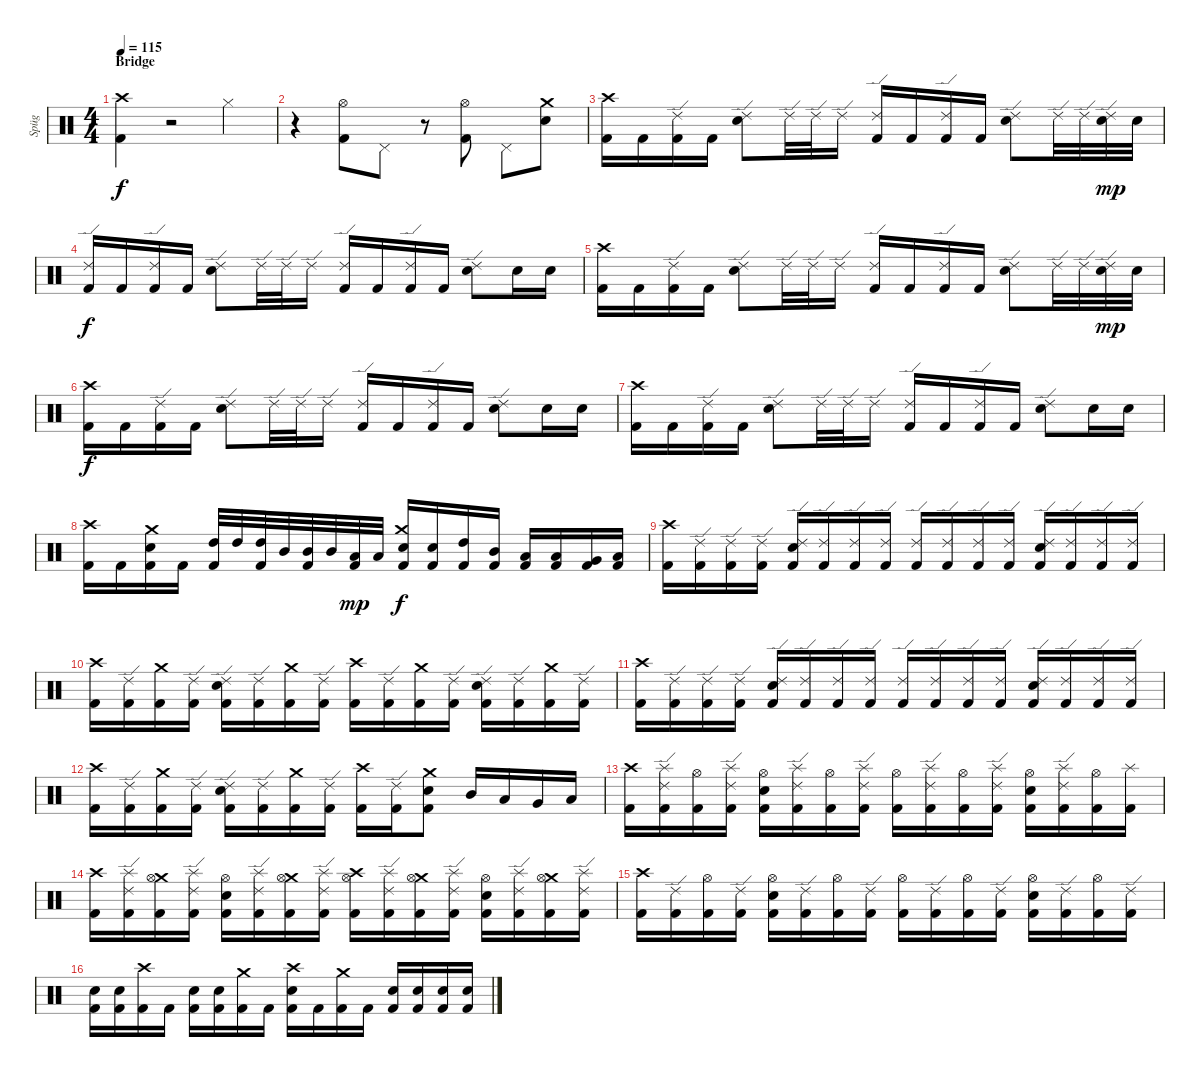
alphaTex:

\track ("Spüg" "Spüg") {instrument percussion}
\staff {score}
\articulation defaults
\ts (4 4)
\section ("" "Bridge")
\tempo 115
\clef neutral
\ks c
("Crash high (hit)" "Kick (hit) 2").4{dy f} r.2 "Hi-Hat (closed)".4 |
r.4 ("Hi-Hat (open)" "Kick (hit) 2").8 "Pedal Hi-Hat (hit)".8 r.8 ("Hi-Hat (open)" "Kick (hit) 2").8 "Pedal Hi-Hat (hit)".8 ("Crash medium (hit)" "Electric Snare (hit)").8 |
("Crash high (hit)" "Kick (hit) 2").16 "Kick (hit) 2".16 ("Ride (edge) 2" "Kick (hit) 2").16 "Kick (hit) 2".16 ("Ride (edge) 2" "Electric Snare (hit)").8 "Ride (edge) 2".32 "Ride (edge) 2".32 "Ride (edge) 2".16 ("Ride (edge) 2" "Kick (hit) 2").16 "Kick (hit) 2".16 ("Ride (edge) 2" "Kick (hit) 2").16 "Kick (hit) 2".16 ("Ride (edge) 2" "Electric Snare (hit)").8 "Ride (edge) 2".32 "Ride (edge) 2".32 ("Ride (edge) 2" "Electric Snare (hit)").32{dy mp} "Electric Snare (hit)".32 |
("Ride (edge) 2" "Kick (hit) 2").16{dy f} "Kick (hit) 2".16 ("Ride (edge) 2" "Kick (hit) 2").16 "Kick (hit) 2".16 ("Ride (edge) 2" "Electric Snare (hit)").8 "Ride (edge) 2".32 "Ride (edge) 2".32 "Ride (edge) 2".16 ("Ride (edge) 2" "Kick (hit) 2").16 "Kick (hit) 2".16 ("Ride (edge) 2" "Kick (hit) 2").16 "Kick (hit) 2".16 ("Ride (edge) 2" "Electric Snare (hit)").8 "Electric Snare (hit)".16 "Electric Snare (hit)".16 |
("Crash high (hit)" "Kick (hit) 2").16 "Kick (hit) 2".16 ("Ride (edge) 2" "Kick (hit) 2").16 "Kick (hit) 2".16 ("Ride (edge) 2" "Electric Snare (hit)").8 "Ride (edge) 2".32 "Ride (edge) 2".32 "Ride (edge) 2".16 ("Ride (edge) 2" "Kick (hit) 2").16 "Kick (hit) 2".16 ("Ride (edge) 2" "Kick (hit) 2").16 "Kick (hit) 2".16 ("Ride (edge) 2" "Electric Snare (hit)").8 "Ride (edge) 2".32 "Ride (edge) 2".32 ("Ride (edge) 2" "Electric Snare (hit)").32{dy mp} "Electric Snare (hit)".32 |
("Crash high (hit)" "Kick (hit) 2").16{dy f} "Kick (hit) 2".16 ("Ride (edge) 2" "Kick (hit) 2").16 "Kick (hit) 2".16 ("Ride (edge) 2" "Electric Snare (hit)").8 "Ride (edge) 2".32 "Ride (edge) 2".32 "Ride (edge) 2".16 ("Ride (edge) 2" "Kick (hit) 2").16 "Kick (hit) 2".16 ("Ride (edge) 2" "Kick (hit) 2").16 "Kick (hit) 2".16 ("Ride (edge) 2" "Electric Snare (hit)").8 "Electric Snare (hit)".16 "Electric Snare (hit)".16 |
("Crash high (hit)" "Kick (hit) 2").16 "Kick (hit) 2".16 ("Ride (edge) 2" "Kick (hit) 2").16 "Kick (hit) 2".16 ("Ride (edge) 2" "Electric Snare (hit)").8 "Ride (edge) 2".32 "Ride (edge) 2".32 "Ride (edge) 2".16 ("Ride (edge) 2" "Kick (hit) 2").16 "Kick (hit) 2".16 ("Ride (edge) 2" "Kick (hit) 2").16 "Kick (hit) 2".16 ("Ride (edge) 2" "Electric Snare (hit)").8 "Electric Snare (hit)".16 "Electric Snare (hit)".16 |
("Crash high (hit)" "Kick (hit) 2").16 "Kick (hit) 2".16 ("Crash medium (hit)" "Electric Snare (hit)" "Kick (hit) 2").16 "Kick (hit) 2".16 ("High Tom (hit)" "Kick (hit) 2").32 "High Tom (hit)".32 ("High Tom (hit)" "Kick (hit) 2").32 "Mid Tom (hit)".32 ("Mid Tom (hit)" "Kick (hit) 2").32 "Mid Tom (hit)".32 ("Low Tom (hit)" "Kick (hit) 2").32{dy mp} "Low Tom (hit)".32 ("Crash medium (hit)" "Electric Snare (hit)" "Kick (hit) 2").16{dy f} ("Electric Snare (hit)" "Kick (hit) 2").16 ("High Tom (hit)" "Kick (hit) 2").16 ("Mid Tom (hit)" "Kick (hit) 2").16 ("Low Tom (hit)" "Kick (hit) 2").16 ("Low Tom (hit)" "Kick (hit) 2").16 ("Very Low Tom (hit)" "Kick (hit) 2").16 ("Low Floor Tom (hit)" "Kick (hit) 2").16 |
("Crash high (hit)" "Kick (hit) 2").16 ("Ride (edge) 2" "Kick (hit) 2").16 ("Ride (edge) 2" "Kick (hit) 2").16 ("Ride (edge) 2" "Kick (hit) 2").16 ("Ride (edge) 2" "Electric Snare (hit)" "Kick (hit) 2").16 ("Ride (edge) 2" "Kick (hit) 2").16 ("Ride (edge) 2" "Kick (hit) 2").16 ("Ride (edge) 2" "Kick (hit) 2").16 ("Ride (edge) 2" "Kick (hit) 2").16 ("Ride (edge) 2" "Kick (hit) 2").16 ("Ride (edge) 2" "Kick (hit) 2").16 ("Ride (edge) 2" "Kick (hit) 2").16 ("Ride (edge) 2" "Electric Snare (hit)" "Kick (hit) 2").16 ("Ride (edge) 2" "Kick (hit) 2").16 ("Ride (edge) 2" "Kick (hit) 2").16 ("Ride (edge) 2" "Kick (hit) 2").16 |
("Crash high (hit)" "Kick (hit) 2").16 ("Ride (edge) 2" "Kick (hit) 2").16 ("Crash medium (hit)" "Kick (hit) 2").16 ("Ride (edge) 2" "Kick (hit) 2").16 ("Ride (edge) 2" "Electric Snare (hit)" "Kick (hit) 2").16 ("Ride (edge) 2" "Kick (hit) 2").16 ("Crash medium (hit)" "Kick (hit) 2").16 ("Ride (edge) 2" "Kick (hit) 2").16 ("Crash high (hit)" "Kick (hit) 2").16 ("Ride (edge) 2" "Kick (hit) 2").16 ("Crash medium (hit)" "Kick (hit) 2").16 ("Ride (edge) 2" "Kick (hit) 2").16 ("Ride (edge) 2" "Electric Snare (hit)" "Kick (hit) 2").16 ("Ride (edge) 2" "Kick (hit) 2").16 ("Crash medium (hit)" "Kick (hit) 2").16 ("Ride (edge) 2" "Kick (hit) 2").16 |
("Crash high (hit)" "Kick (hit) 2").16 ("Ride (edge) 2" "Kick (hit) 2").16 ("Ride (edge) 2" "Kick (hit) 2").16 ("Ride (edge) 2" "Kick (hit) 2").16 ("Ride (edge) 2" "Electric Snare (hit)" "Kick (hit) 2").16 ("Ride (edge) 2" "Kick (hit) 2").16 ("Ride (edge) 2" "Kick (hit) 2").16 ("Ride (edge) 2" "Kick (hit) 2").16 ("Ride (edge) 2" "Kick (hit) 2").16 ("Ride (edge) 2" "Kick (hit) 2").16 ("Ride (edge) 2" "Kick (hit) 2").16 ("Ride (edge) 2" "Kick (hit) 2").16 ("Ride (edge) 2" "Electric Snare (hit)" "Kick (hit) 2").16 ("Ride (edge) 2" "Kick (hit) 2").16 ("Ride (edge) 2" "Kick (hit) 2").16 ("Ride (edge) 2" "Kick (hit) 2").16 |
("Crash high (hit)" "Kick (hit) 2").16 ("Ride (edge) 2" "Kick (hit) 2").16 ("Crash medium (hit)" "Kick (hit) 2").16 ("Ride (edge) 2" "Kick (hit) 2").16 ("Ride (edge) 2" "Electric Snare (hit)" "Kick (hit) 2").16 ("Ride (edge) 2" "Kick (hit) 2").16 ("Crash medium (hit)" "Kick (hit) 2").16 ("Ride (edge) 2" "Kick (hit) 2").16 ("Crash high (hit)" "Kick (hit) 2").16 ("Ride (edge) 2" "Kick (hit) 2").16 ("Crash medium (hit)" "Electric Snare (hit)" "Kick (hit) 2").8 "Mid Tom (hit)".16 "Low Tom (hit)".16 "Very Low Tom (hit)".16 "Low Floor Tom (hit)".16 |
("Crash high (hit)" "Kick (hit) 2").16 ("Splash (hit)" "Ride (edge) 2" "Kick (hit) 2").16 ("Hi-Hat (open)" "Kick (hit) 2").16 ("Splash (hit)" "Ride (edge) 2" "Kick (hit) 2").16 ("Hi-Hat (open)" "Electric Snare (hit)" "Kick (hit) 2").16 ("Splash (hit)" "Ride (edge) 2" "Kick (hit) 2").16 ("Hi-Hat (open)" "Kick (hit) 2").16 ("Splash (hit)" "Ride (edge) 2" "Kick (hit) 2").16 ("Hi-Hat (open)" "Kick (hit) 2").16 ("Splash (hit)" "Ride (edge) 2" "Kick (hit) 2").16 ("Hi-Hat (open)" "Kick (hit) 2").16 ("Splash (hit)" "Ride (edge) 2" "Kick (hit) 2").16 ("Hi-Hat (open)" "Electric Snare (hit)" "Kick (hit) 2").16 ("Splash (hit)" "Ride (edge) 2" "Kick (hit) 2").16 ("Hi-Hat (open)" "Kick (hit) 2").16 ("Splash (hit)" "Kick (hit) 2").16 |
("Crash high (hit)" "Kick (hit) 2").16 ("Splash (hit)" "Ride (edge) 2" "Kick (hit) 2").16 ("Crash medium (hit)" "Hi-Hat (open)" "Kick (hit) 2").16 ("Splash (hit)" "Ride (edge) 2" "Kick (hit) 2").16 ("Hi-Hat (open)" "Electric Snare (hit)" "Kick (hit) 2").16 ("Splash (hit)" "Ride (edge) 2" "Kick (hit) 2").16 ("Crash medium (hit)" "Hi-Hat (open)" "Kick (hit) 2").16 ("Splash (hit)" "Ride (edge) 2" "Kick (hit) 2").16 ("Crash high (hit)" "Hi-Hat (open)" "Kick (hit) 2").16 ("Splash (hit)" "Ride (edge) 2" "Kick (hit) 2").16 ("Crash medium (hit)" "Hi-Hat (open)" "Kick (hit) 2").16 ("Splash (hit)" "Ride (edge) 2" "Kick (hit) 2").16 ("Hi-Hat (open)" "Electric Snare (hit)" "Kick (hit) 2").16 ("Splash (hit)" "Ride (edge) 2" "Kick (hit) 2").16 ("Crash medium (hit)" "Hi-Hat (open)" "Kick (hit) 2").16 ("Splash (hit)" "Ride (edge) 2" "Kick (hit) 2").16 |
("Crash high (hit)" "Kick (hit) 2").16 ("Ride (edge) 2" "Kick (hit) 2").16 ("Hi-Hat (open)" "Kick (hit) 2").16 ("Ride (edge) 2" "Kick (hit) 2").16 ("Hi-Hat (open)" "Electric Snare (hit)" "Kick (hit) 2").16 ("Ride (edge) 2" "Kick (hit) 2").16 ("Hi-Hat (open)" "Kick (hit) 2").16 ("Ride (edge) 2" "Kick (hit) 2").16 ("Hi-Hat (open)" "Kick (hit) 2").16 ("Ride (edge) 2" "Kick (hit) 2").16 ("Hi-Hat (open)" "Kick (hit) 2").16 ("Ride (edge) 2" "Kick (hit) 2").16 ("Hi-Hat (open)" "Electric Snare (hit)" "Kick (hit) 2").16 ("Ride (edge) 2" "Kick (hit) 2").16 ("Hi-Hat (open)" "Kick (hit) 2").16 ("Ride (edge) 2" "Kick (hit) 2").16 |
("Electric Snare (hit)" "Kick (hit) 2").16 ("Electric Snare (hit)" "Kick (hit) 2").16 ("Crash high (hit)" "Kick (hit) 2").16 "Kick (hit) 2".16 ("Electric Snare (hit)" "Kick (hit) 2").16 ("Electric Snare (hit)" "Kick (hit) 2").16 ("Crash medium (hit)" "Kick (hit) 2").16 "Kick (hit) 2".16 ("Crash high (hit)" "Electric Snare (hit)" "Kick (hit) 2").16 "Kick (hit) 2".16 ("Crash medium (hit)" "Kick (hit) 2").16 "Kick (hit) 2".16 ("Electric Snare (hit)" "Kick (hit) 2").16 ("Electric Snare (hit)" "Kick (hit) 2").16 ("Electric Snare (hit)" "Kick (hit) 2").16 ("Electric Snare (hit)" "Kick (hit) 2").16
